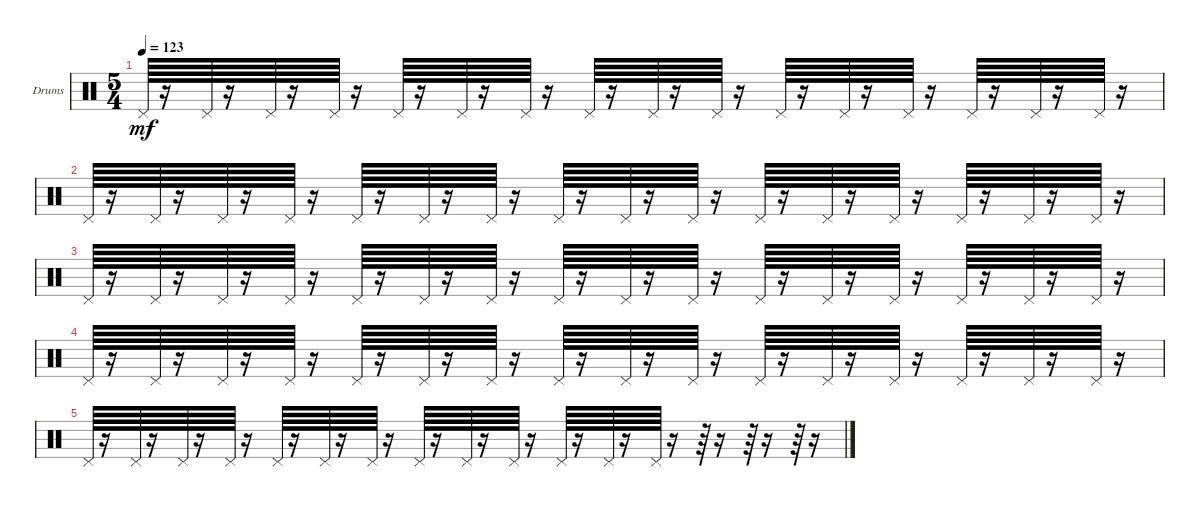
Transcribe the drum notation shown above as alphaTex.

\defaultSystemsLayout 4
\bracketExtendMode groupsimilarinstruments
\firstSystemTrackNameOrientation horizontal
\otherSystemsTrackNameOrientation horizontal
\track ("Drumkit" "Drums") {instrument percussion}
\staff {score}
\articulation defaults
\ts (5 4)
\tempo 123
\clef neutral
\ks c "Pedal Hi-Hat (hit)".64{dy mf}
r.16 "Pedal Hi-Hat (hit)".64 r.16 "Pedal Hi-Hat (hit)".64 r.16 "Pedal Hi-Hat (hit)".64 r.16 "Pedal Hi-Hat (hit)".64 r.16 "Pedal Hi-Hat (hit)".64 r.16 "Pedal Hi-Hat (hit)".64 r.16 "Pedal Hi-Hat (hit)".64 r.16 "Pedal Hi-Hat (hit)".64 r.16 "Pedal Hi-Hat (hit)".64 r.16 "Pedal Hi-Hat (hit)".64 r.16 "Pedal Hi-Hat (hit)".64 r.16 "Pedal Hi-Hat (hit)".64 r.16 "Pedal Hi-Hat (hit)".64 r.16 "Pedal Hi-Hat (hit)".64 r.16 "Pedal Hi-Hat (hit)".64 r.16 |
"Pedal Hi-Hat (hit)".64 r.16 "Pedal Hi-Hat (hit)".64 r.16 "Pedal Hi-Hat (hit)".64 r.16 "Pedal Hi-Hat (hit)".64 r.16 "Pedal Hi-Hat (hit)".64 r.16 "Pedal Hi-Hat (hit)".64 r.16 "Pedal Hi-Hat (hit)".64 r.16 "Pedal Hi-Hat (hit)".64 r.16 "Pedal Hi-Hat (hit)".64 r.16 "Pedal Hi-Hat (hit)".64 r.16 "Pedal Hi-Hat (hit)".64 r.16 "Pedal Hi-Hat (hit)".64 r.16 "Pedal Hi-Hat (hit)".64 r.16 "Pedal Hi-Hat (hit)".64 r.16 "Pedal Hi-Hat (hit)".64 r.16 "Pedal Hi-Hat (hit)".64 r.16 |
"Pedal Hi-Hat (hit)".64 r.16 "Pedal Hi-Hat (hit)".64 r.16 "Pedal Hi-Hat (hit)".64 r.16 "Pedal Hi-Hat (hit)".64 r.16 "Pedal Hi-Hat (hit)".64 r.16 "Pedal Hi-Hat (hit)".64 r.16 "Pedal Hi-Hat (hit)".64 r.16 "Pedal Hi-Hat (hit)".64 r.16 "Pedal Hi-Hat (hit)".64 r.16 "Pedal Hi-Hat (hit)".64 r.16 "Pedal Hi-Hat (hit)".64 r.16 "Pedal Hi-Hat (hit)".64 r.16 "Pedal Hi-Hat (hit)".64 r.16 "Pedal Hi-Hat (hit)".64 r.16 "Pedal Hi-Hat (hit)".64 r.16 "Pedal Hi-Hat (hit)".64 r.16 |
"Pedal Hi-Hat (hit)".64 r.16 "Pedal Hi-Hat (hit)".64 r.16 "Pedal Hi-Hat (hit)".64 r.16 "Pedal Hi-Hat (hit)".64 r.16 "Pedal Hi-Hat (hit)".64 r.16 "Pedal Hi-Hat (hit)".64 r.16 "Pedal Hi-Hat (hit)".64 r.16 "Pedal Hi-Hat (hit)".64 r.16 "Pedal Hi-Hat (hit)".64 r.16 "Pedal Hi-Hat (hit)".64 r.16 "Pedal Hi-Hat (hit)".64 r.16 "Pedal Hi-Hat (hit)".64 r.16 "Pedal Hi-Hat (hit)".64 r.16 "Pedal Hi-Hat (hit)".64 r.16 "Pedal Hi-Hat (hit)".64 r.16 "Pedal Hi-Hat (hit)".64 r.16 |
"Pedal Hi-Hat (hit)".64 r.16 "Pedal Hi-Hat (hit)".64 r.16 "Pedal Hi-Hat (hit)".64 r.16 "Pedal Hi-Hat (hit)".64 r.16 "Pedal Hi-Hat (hit)".64 r.16 "Pedal Hi-Hat (hit)".64 r.16 "Pedal Hi-Hat (hit)".64 r.16 "Pedal Hi-Hat (hit)".64 r.16 "Pedal Hi-Hat (hit)".64 r.16 "Pedal Hi-Hat (hit)".64 r.16 "Pedal Hi-Hat (hit)".64 r.16 "Pedal Hi-Hat (hit)".64 r.16 "Pedal Hi-Hat (hit)".64 r.16 r.64 r.16 r.64 r.16 r.64 r.16
